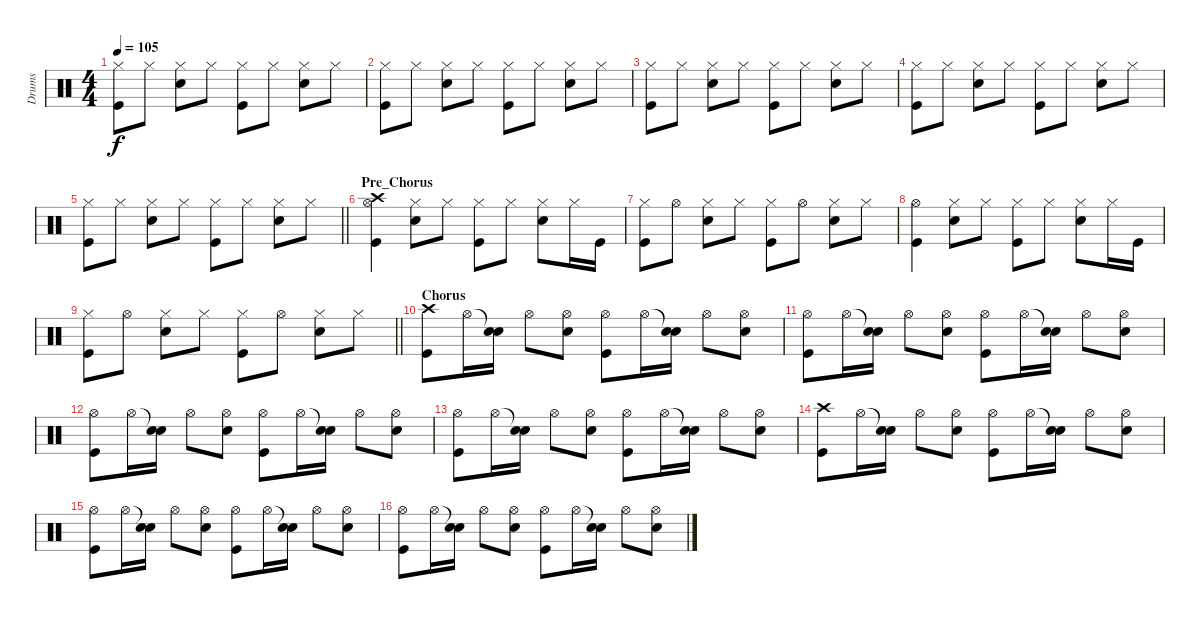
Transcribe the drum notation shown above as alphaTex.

\track ("Drums" "Drums") {instrument percussion}
\staff {score}
\articulation defaults
\ts (4 4)
\tempo 105
\clef neutral
\ks c
("Hi-Hat (closed)" "Kick (hit)").8{dy f} "Hi-Hat (closed)".8 ("Hi-Hat (closed)" "Electric Snare (hit)").8 "Hi-Hat (closed)".8 ("Hi-Hat (closed)" "Kick (hit)").8 "Hi-Hat (closed)".8 ("Hi-Hat (closed)" "Electric Snare (hit)").8 "Hi-Hat (closed)".8 |
("Hi-Hat (closed)" "Kick (hit)").8 "Hi-Hat (closed)".8 ("Hi-Hat (closed)" "Electric Snare (hit)").8 "Hi-Hat (closed)".8 ("Hi-Hat (closed)" "Kick (hit)").8 "Hi-Hat (closed)".8 ("Hi-Hat (closed)" "Electric Snare (hit)").8 "Hi-Hat (closed)".8 |
("Hi-Hat (closed)" "Kick (hit)").8 "Hi-Hat (closed)".8 ("Hi-Hat (closed)" "Electric Snare (hit)").8 "Hi-Hat (closed)".8 ("Hi-Hat (closed)" "Kick (hit)").8 "Hi-Hat (closed)".8 ("Hi-Hat (closed)" "Electric Snare (hit)").8 "Hi-Hat (closed)".8 |
("Hi-Hat (closed)" "Kick (hit)").8 "Hi-Hat (closed)".8 ("Hi-Hat (closed)" "Electric Snare (hit)").8 "Hi-Hat (closed)".8 ("Hi-Hat (closed)" "Kick (hit)").8 "Hi-Hat (closed)".8 ("Hi-Hat (closed)" "Electric Snare (hit)").8 "Hi-Hat (closed)".8 |
\barLineRight lightlight
("Hi-Hat (closed)" "Kick (hit)").8 "Hi-Hat (closed)".8 ("Hi-Hat (closed)" "Electric Snare (hit)").8 "Hi-Hat (closed)".8 ("Hi-Hat (closed)" "Kick (hit)").8 "Hi-Hat (closed)".8 ("Hi-Hat (closed)" "Electric Snare (hit)").8 "Hi-Hat (closed)".8 |
\section ("" "Pre_Chorus")
("Crash high (hit)" "Hi-Hat (open)" "Kick (hit)").4 ("Hi-Hat (closed)" "Electric Snare (hit)").8 "Hi-Hat (closed)".8 ("Hi-Hat (closed)" "Kick (hit)").8 "Hi-Hat (closed)".8 ("Hi-Hat (closed)" "Electric Snare (hit)").8 "Hi-Hat (closed)".16 "Kick (hit)".16 |
("Hi-Hat (closed)" "Kick (hit)").8 "Hi-Hat (open)".8 ("Hi-Hat (closed)" "Electric Snare (hit)").8 "Hi-Hat (closed)".8 ("Hi-Hat (closed)" "Kick (hit)").8 "Hi-Hat (open)".8 ("Hi-Hat (closed)" "Electric Snare (hit)").8 "Hi-Hat (closed)".8 |
("Hi-Hat (open)" "Kick (hit)").4 ("Hi-Hat (closed)" "Electric Snare (hit)").8 "Hi-Hat (closed)".8 ("Hi-Hat (closed)" "Kick (hit)").8 "Hi-Hat (closed)".8 ("Hi-Hat (closed)" "Electric Snare (hit)").8 "Hi-Hat (closed)".16 "Kick (hit)".16 |
\barLineRight lightlight
("Hi-Hat (closed)" "Kick (hit)").8 "Hi-Hat (open)".8 ("Hi-Hat (closed)" "Electric Snare (hit)").8 "Hi-Hat (closed)".8 ("Hi-Hat (closed)" "Kick (hit)").8 "Hi-Hat (open)".8 ("Hi-Hat (closed)" "Electric Snare (hit)").8 "Hi-Hat (closed)".8 |
\section ("" "Chorus")
("Crash high (hit)" "Kick (hit)").8 "Hi-Hat (open)".16 ("Snare (hit)"{t} "Electric Snare (hit)").16 "Hi-Hat (open)".8 ("Hi-Hat (open)" "Electric Snare (hit)").8 ("Hi-Hat (open)" "Kick (hit)").8 "Hi-Hat (open)".16 ("Snare (hit)"{t} "Electric Snare (hit)").16 "Hi-Hat (open)".8 ("Hi-Hat (open)" "Electric Snare (hit)").8 |
("Hi-Hat (open)" "Kick (hit)").8 "Hi-Hat (open)".16 ("Snare (hit)"{t} "Electric Snare (hit)").16 "Hi-Hat (open)".8 ("Hi-Hat (open)" "Electric Snare (hit)").8 ("Hi-Hat (open)" "Kick (hit)").8 "Hi-Hat (open)".16 ("Snare (hit)"{t} "Electric Snare (hit)").16 "Hi-Hat (open)".8 ("Hi-Hat (open)" "Electric Snare (hit)").8 |
("Hi-Hat (open)" "Kick (hit)").8 "Hi-Hat (open)".16 ("Snare (hit)"{t} "Electric Snare (hit)").16 "Hi-Hat (open)".8 ("Hi-Hat (open)" "Electric Snare (hit)").8 ("Hi-Hat (open)" "Kick (hit)").8 "Hi-Hat (open)".16 ("Snare (hit)"{t} "Electric Snare (hit)").16 "Hi-Hat (open)".8 ("Hi-Hat (open)" "Electric Snare (hit)").8 |
("Hi-Hat (open)" "Kick (hit)").8 "Hi-Hat (open)".16 ("Snare (hit)"{t} "Electric Snare (hit)").16 "Hi-Hat (open)".8 ("Hi-Hat (open)" "Electric Snare (hit)").8 ("Hi-Hat (open)" "Kick (hit)").8 "Hi-Hat (open)".16 ("Snare (hit)"{t} "Electric Snare (hit)").16 "Hi-Hat (open)".8 ("Hi-Hat (open)" "Electric Snare (hit)").8 |
("Crash high (hit)" "Kick (hit)").8 "Hi-Hat (open)".16 ("Snare (hit)"{t} "Electric Snare (hit)").16 "Hi-Hat (open)".8 ("Hi-Hat (open)" "Electric Snare (hit)").8 ("Hi-Hat (open)" "Kick (hit)").8 "Hi-Hat (open)".16 ("Snare (hit)"{t} "Electric Snare (hit)").16 "Hi-Hat (open)".8 ("Hi-Hat (open)" "Electric Snare (hit)").8 |
("Hi-Hat (open)" "Kick (hit)").8 "Hi-Hat (open)".16 ("Snare (hit)"{t} "Electric Snare (hit)").16 "Hi-Hat (open)".8 ("Hi-Hat (open)" "Electric Snare (hit)").8 ("Hi-Hat (open)" "Kick (hit)").8 "Hi-Hat (open)".16 ("Snare (hit)"{t} "Electric Snare (hit)").16 "Hi-Hat (open)".8 ("Hi-Hat (open)" "Electric Snare (hit)").8 |
("Hi-Hat (open)" "Kick (hit)").8 "Hi-Hat (open)".16 ("Snare (hit)"{t} "Electric Snare (hit)").16 "Hi-Hat (open)".8 ("Hi-Hat (open)" "Electric Snare (hit)").8 ("Hi-Hat (open)" "Kick (hit)").8 "Hi-Hat (open)".16 ("Snare (hit)"{t} "Electric Snare (hit)").16 "Hi-Hat (open)".8 ("Hi-Hat (open)" "Electric Snare (hit)").8
